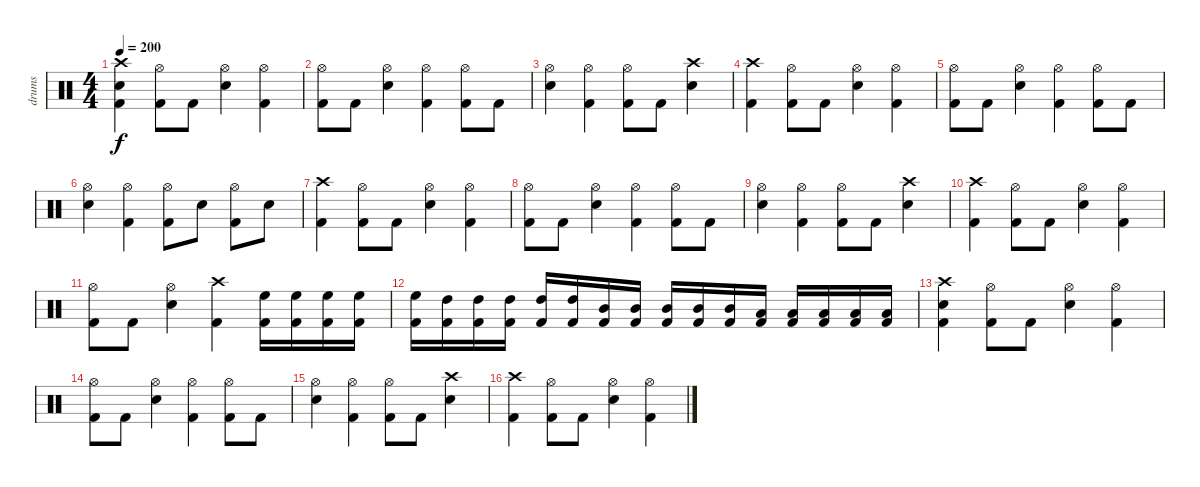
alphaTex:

\track ("drums" "drums") {instrument percussion}
\staff {score}
\articulation defaults
\ts (4 4)
\tempo 200
\clef neutral
\ks c
("Kick (hit) 2" "Snare (hit) 2" "Crash high (hit)").4{dy f} ("Kick (hit) 2" "Hi-Hat (open)").8 "Kick (hit) 2".8 ("Snare (hit) 2" "Hi-Hat (open)").4 ("Kick (hit) 2" "Hi-Hat (open)").4 |
("Kick (hit) 2" "Hi-Hat (open)").8 "Kick (hit) 2".8 ("Snare (hit) 2" "Hi-Hat (open)").4 ("Kick (hit) 2" "Hi-Hat (open)").4 ("Kick (hit) 2" "Hi-Hat (open)").8 "Kick (hit) 2".8 |
("Snare (hit) 2" "Hi-Hat (open)").4 ("Kick (hit) 2" "Hi-Hat (open)").4 ("Kick (hit) 2" "Hi-Hat (open)").8 "Kick (hit) 2".8 ("Snare (hit) 2" "Crash high (hit)").4 |
("Kick (hit) 2" "Crash high (hit)").4 ("Kick (hit) 2" "Hi-Hat (open)").8 "Kick (hit) 2".8 ("Snare (hit) 2" "Hi-Hat (open)").4 ("Kick (hit) 2" "Hi-Hat (open)").4 |
("Kick (hit) 2" "Hi-Hat (open)").8 "Kick (hit) 2".8 ("Snare (hit) 2" "Hi-Hat (open)").4 ("Kick (hit) 2" "Hi-Hat (open)").4 ("Kick (hit) 2" "Hi-Hat (open)").8 "Kick (hit) 2".8 |
("Snare (hit) 2" "Hi-Hat (open)").4 ("Kick (hit) 2" "Hi-Hat (open)").4 ("Kick (hit) 2" "Hi-Hat (open)").8 "Snare (hit) 2".8 ("Kick (hit) 2" "Hi-Hat (open)").8 "Snare (hit) 2".8 |
("Kick (hit) 2" "Crash high (hit)").4 ("Kick (hit) 2" "Hi-Hat (open)").8 "Kick (hit) 2".8 ("Snare (hit) 2" "Hi-Hat (open)").4 ("Kick (hit) 2" "Hi-Hat (open)").4 |
("Kick (hit) 2" "Hi-Hat (open)").8 "Kick (hit) 2".8 ("Snare (hit) 2" "Hi-Hat (open)").4 ("Kick (hit) 2" "Hi-Hat (open)").4 ("Kick (hit) 2" "Hi-Hat (open)").8 "Kick (hit) 2".8 |
("Snare (hit) 2" "Hi-Hat (open)").4 ("Kick (hit) 2" "Hi-Hat (open)").4 ("Kick (hit) 2" "Hi-Hat (open)").8 "Kick (hit) 2".8 ("Snare (hit) 2" "Crash high (hit)").4 |
("Kick (hit) 2" "Crash high (hit)").4 ("Kick (hit) 2" "Hi-Hat (open)").8 "Kick (hit) 2".8 ("Snare (hit) 2" "Hi-Hat (open)").4 ("Kick (hit) 2" "Hi-Hat (open)").4 |
("Kick (hit) 2" "Hi-Hat (open)").8 "Kick (hit) 2".8 ("Snare (hit) 2" "Hi-Hat (open)").4 ("Kick (hit) 2" "Crash high (hit)").4 ("Kick (hit) 2" "High Floor Tom (hit)").16 ("Kick (hit) 2" "High Floor Tom (hit)").16 ("Kick (hit) 2" "High Floor Tom (hit)").16 ("Kick (hit) 2" "High Floor Tom (hit)").16 |
("Kick (hit) 2" "High Floor Tom (hit)").16 ("Kick (hit) 2" "High Tom (hit)").16 ("Kick (hit) 2" "High Tom (hit)").16 ("Kick (hit) 2" "High Tom (hit)").16 ("Kick (hit) 2" "High Tom (hit)").16 ("Kick (hit) 2" "High Tom (hit)").16 ("Kick (hit) 2" "Mid Tom (hit)").16 ("Kick (hit) 2" "Mid Tom (hit)").16 ("Kick (hit) 2" "Mid Tom (hit)").16 ("Kick (hit) 2" "Mid Tom (hit)").16 ("Kick (hit) 2" "Mid Tom (hit)").16 ("Kick (hit) 2" "Low Tom (hit)").16 ("Kick (hit) 2" "Low Tom (hit)").16 ("Kick (hit) 2" "Low Tom (hit)").16 ("Kick (hit) 2" "Low Tom (hit)").16 ("Kick (hit) 2" "Low Tom (hit)").16 |
("Kick (hit) 2" "Snare (hit) 2" "Crash high (hit)").4 ("Kick (hit) 2" "Hi-Hat (open)").8 "Kick (hit) 2".8 ("Snare (hit) 2" "Hi-Hat (open)").4 ("Kick (hit) 2" "Hi-Hat (open)").4 |
("Kick (hit) 2" "Hi-Hat (open)").8 "Kick (hit) 2".8 ("Snare (hit) 2" "Hi-Hat (open)").4 ("Kick (hit) 2" "Hi-Hat (open)").4 ("Kick (hit) 2" "Hi-Hat (open)").8 "Kick (hit) 2".8 |
("Snare (hit) 2" "Hi-Hat (open)").4 ("Kick (hit) 2" "Hi-Hat (open)").4 ("Kick (hit) 2" "Hi-Hat (open)").8 "Kick (hit) 2".8 ("Snare (hit) 2" "Crash high (hit)").4 |
("Kick (hit) 2" "Crash high (hit)").4 ("Kick (hit) 2" "Hi-Hat (open)").8 "Kick (hit) 2".8 ("Snare (hit) 2" "Hi-Hat (open)").4 ("Kick (hit) 2" "Hi-Hat (open)").4
